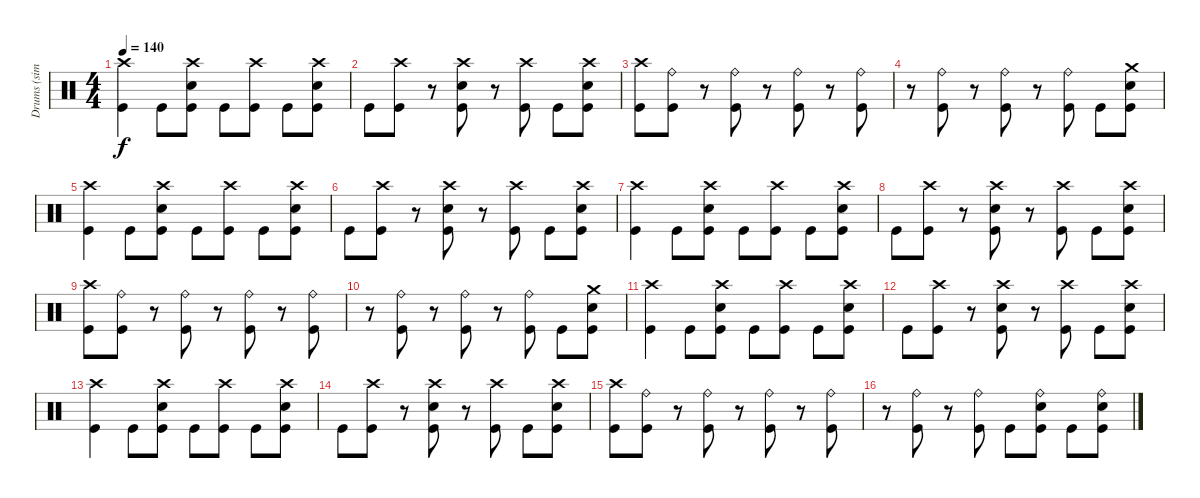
\track ("Drums (simple)" "Drums (sim") {instrument percussion}
\staff {score}
\articulation defaults
\ts (4 4)
\tempo 140
\clef neutral
\ks c
("Crash high (hit)" "Kick (hit)").4{dy f} "Kick (hit)".8 ("Crash high (hit)" "Snare (hit) 2" "Kick (hit)").8 "Kick (hit)".8 ("Crash high (hit)" "Kick (hit)").8 "Kick (hit)".8 ("Crash high (hit)" "Snare (hit) 2" "Kick (hit)").8 |
"Kick (hit)".8 ("Crash high (hit)" "Kick (hit)").8 r.8 ("Crash high (hit)" "Snare (hit) 2" "Kick (hit)").8 r.8 ("Crash high (hit)" "Kick (hit)").8 "Kick (hit)".8 ("Crash high (hit)" "Snare (hit) 2" "Kick (hit)").8 |
("Crash high (hit)" "Kick (hit)").8 ("Ride (bell)" "Kick (hit)").8 r.8 ("Ride (bell)" "Kick (hit)").8 r.8 ("Ride (bell)" "Kick (hit)").8 r.8 ("Ride (bell)" "Kick (hit)").8 |
r.8 ("Ride (bell)" "Kick (hit)").8 r.8 ("Ride (bell)" "Kick (hit)").8 r.8 ("Ride (bell)" "Kick (hit)").8 "Kick (hit)".8 ("Crash medium (hit)" "Snare (hit) 2" "Kick (hit)").8 |
("Crash high (hit)" "Kick (hit)").4 "Kick (hit)".8 ("Crash high (hit)" "Snare (hit) 2" "Kick (hit)").8 "Kick (hit)".8 ("Crash high (hit)" "Kick (hit)").8 "Kick (hit)".8 ("Crash high (hit)" "Snare (hit) 2" "Kick (hit)").8 |
"Kick (hit)".8 ("Crash high (hit)" "Kick (hit)").8 r.8 ("Crash high (hit)" "Snare (hit) 2" "Kick (hit)").8 r.8 ("Crash high (hit)" "Kick (hit)").8 "Kick (hit)".8 ("Crash high (hit)" "Snare (hit) 2" "Kick (hit)").8 |
("Crash high (hit)" "Kick (hit)").4 "Kick (hit)".8 ("Crash high (hit)" "Snare (hit) 2" "Kick (hit)").8 "Kick (hit)".8 ("Crash high (hit)" "Kick (hit)").8 "Kick (hit)".8 ("Crash high (hit)" "Snare (hit) 2" "Kick (hit)").8 |
"Kick (hit)".8 ("Crash high (hit)" "Kick (hit)").8 r.8 ("Crash high (hit)" "Snare (hit) 2" "Kick (hit)").8 r.8 ("Crash high (hit)" "Kick (hit)").8 "Kick (hit)".8 ("Crash high (hit)" "Snare (hit) 2" "Kick (hit)").8 |
("Crash high (hit)" "Kick (hit)").8 ("Ride (bell)" "Kick (hit)").8 r.8 ("Ride (bell)" "Kick (hit)").8 r.8 ("Ride (bell)" "Kick (hit)").8 r.8 ("Ride (bell)" "Kick (hit)").8 |
r.8 ("Ride (bell)" "Kick (hit)").8 r.8 ("Ride (bell)" "Kick (hit)").8 r.8 ("Ride (bell)" "Kick (hit)").8 "Kick (hit)".8 ("Crash medium (hit)" "Snare (hit) 2" "Kick (hit)").8 |
("Crash high (hit)" "Kick (hit)").4 "Kick (hit)".8 ("Crash high (hit)" "Snare (hit) 2" "Kick (hit)").8 "Kick (hit)".8 ("Crash high (hit)" "Kick (hit)").8 "Kick (hit)".8 ("Crash high (hit)" "Snare (hit) 2" "Kick (hit)").8 |
"Kick (hit)".8 ("Crash high (hit)" "Kick (hit)").8 r.8 ("Crash high (hit)" "Snare (hit) 2" "Kick (hit)").8 r.8 ("Crash high (hit)" "Kick (hit)").8 "Kick (hit)".8 ("Crash high (hit)" "Snare (hit) 2" "Kick (hit)").8 |
("Crash high (hit)" "Kick (hit)").4 "Kick (hit)".8 ("Crash high (hit)" "Snare (hit) 2" "Kick (hit)").8 "Kick (hit)".8 ("Crash high (hit)" "Kick (hit)").8 "Kick (hit)".8 ("Crash high (hit)" "Snare (hit) 2" "Kick (hit)").8 |
"Kick (hit)".8 ("Crash high (hit)" "Kick (hit)").8 r.8 ("Crash high (hit)" "Snare (hit) 2" "Kick (hit)").8 r.8 ("Crash high (hit)" "Kick (hit)").8 "Kick (hit)".8 ("Crash high (hit)" "Snare (hit) 2" "Kick (hit)").8 |
("Crash high (hit)" "Kick (hit)").8 ("Ride (bell)" "Kick (hit)").8 r.8 ("Ride (bell)" "Kick (hit)").8 r.8 ("Ride (bell)" "Kick (hit)").8 r.8 ("Ride (bell)" "Kick (hit)").8 |
r.8 ("Ride (bell)" "Kick (hit)").8 r.8 ("Ride (bell)" "Kick (hit)").8 "Kick (hit)".8 ("Ride (bell)" "Snare (hit) 2" "Kick (hit)").8 "Kick (hit)".8 ("Ride (bell)" "Snare (hit) 2" "Kick (hit)").8
